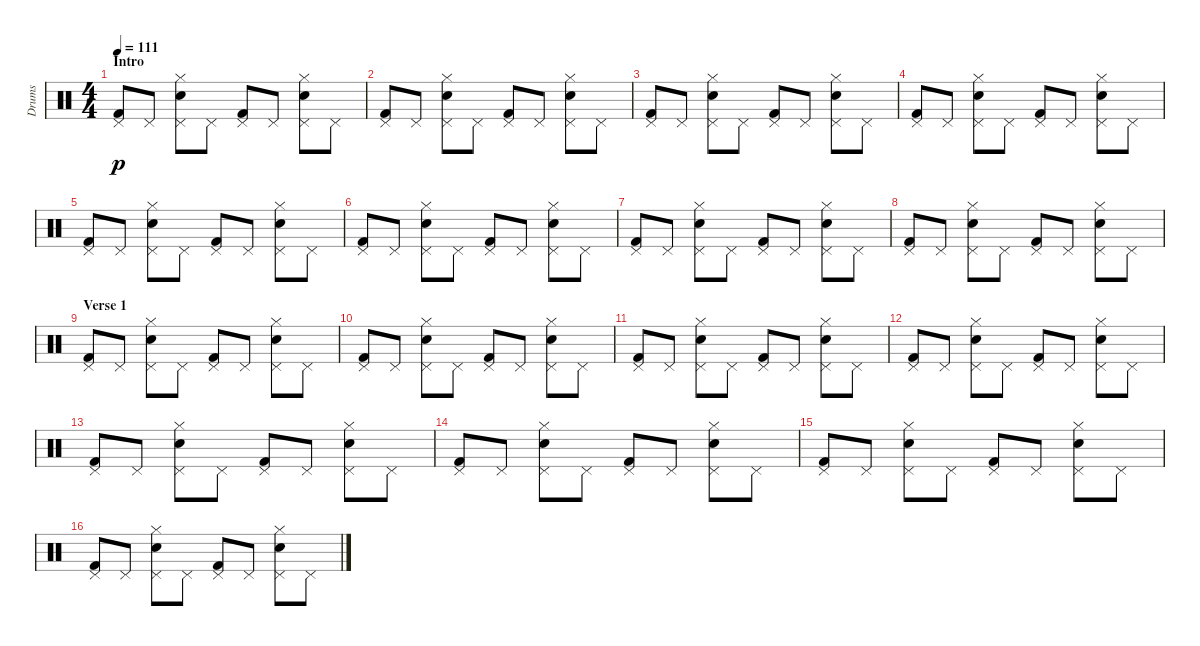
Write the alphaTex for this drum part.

\track ("Drums" "Drums") {instrument percussion}
\staff {score}
\articulation defaults
\ts (4 4)
\section ("" "Intro")
\tempo 111
\clef neutral
\ks c
("Pedal Hi-Hat (hit)" "Kick (hit) 2").8{dy p} "Pedal Hi-Hat (hit)".8 ("Pedal Hi-Hat (hit)" "Hand Clap (hit)" "Hi-Hat (closed)").8 "Pedal Hi-Hat (hit)".8 ("Pedal Hi-Hat (hit)" "Kick (hit) 2").8 "Pedal Hi-Hat (hit)".8 ("Pedal Hi-Hat (hit)" "Hand Clap (hit)" "Hi-Hat (closed)").8 "Pedal Hi-Hat (hit)".8 |
("Pedal Hi-Hat (hit)" "Kick (hit) 2").8 "Pedal Hi-Hat (hit)".8 ("Pedal Hi-Hat (hit)" "Hand Clap (hit)" "Hi-Hat (closed)").8 "Pedal Hi-Hat (hit)".8 ("Pedal Hi-Hat (hit)" "Kick (hit) 2").8 "Pedal Hi-Hat (hit)".8 ("Pedal Hi-Hat (hit)" "Hand Clap (hit)" "Hi-Hat (closed)").8 "Pedal Hi-Hat (hit)".8 |
("Pedal Hi-Hat (hit)" "Kick (hit) 2").8 "Pedal Hi-Hat (hit)".8 ("Pedal Hi-Hat (hit)" "Hand Clap (hit)" "Hi-Hat (closed)").8 "Pedal Hi-Hat (hit)".8 ("Pedal Hi-Hat (hit)" "Kick (hit) 2").8 "Pedal Hi-Hat (hit)".8 ("Pedal Hi-Hat (hit)" "Hand Clap (hit)" "Hi-Hat (closed)").8 "Pedal Hi-Hat (hit)".8 |
("Pedal Hi-Hat (hit)" "Kick (hit) 2").8 "Pedal Hi-Hat (hit)".8 ("Pedal Hi-Hat (hit)" "Hand Clap (hit)" "Hi-Hat (closed)").8 "Pedal Hi-Hat (hit)".8 ("Pedal Hi-Hat (hit)" "Kick (hit) 2").8 "Pedal Hi-Hat (hit)".8 ("Pedal Hi-Hat (hit)" "Hand Clap (hit)" "Hi-Hat (closed)").8 "Pedal Hi-Hat (hit)".8 |
("Pedal Hi-Hat (hit)" "Kick (hit) 2").8 "Pedal Hi-Hat (hit)".8 ("Pedal Hi-Hat (hit)" "Hand Clap (hit)" "Hi-Hat (closed)").8 "Pedal Hi-Hat (hit)".8 ("Pedal Hi-Hat (hit)" "Kick (hit) 2").8 "Pedal Hi-Hat (hit)".8 ("Pedal Hi-Hat (hit)" "Hand Clap (hit)" "Hi-Hat (closed)").8 "Pedal Hi-Hat (hit)".8 |
("Pedal Hi-Hat (hit)" "Kick (hit) 2").8 "Pedal Hi-Hat (hit)".8 ("Pedal Hi-Hat (hit)" "Hand Clap (hit)" "Hi-Hat (closed)").8 "Pedal Hi-Hat (hit)".8 ("Pedal Hi-Hat (hit)" "Kick (hit) 2").8 "Pedal Hi-Hat (hit)".8 ("Pedal Hi-Hat (hit)" "Hand Clap (hit)" "Hi-Hat (closed)").8 "Pedal Hi-Hat (hit)".8 |
("Pedal Hi-Hat (hit)" "Kick (hit) 2").8 "Pedal Hi-Hat (hit)".8 ("Pedal Hi-Hat (hit)" "Hand Clap (hit)" "Hi-Hat (closed)").8 "Pedal Hi-Hat (hit)".8 ("Pedal Hi-Hat (hit)" "Kick (hit) 2").8 "Pedal Hi-Hat (hit)".8 ("Pedal Hi-Hat (hit)" "Hand Clap (hit)" "Hi-Hat (closed)").8 "Pedal Hi-Hat (hit)".8 |
("Pedal Hi-Hat (hit)" "Kick (hit) 2").8 "Pedal Hi-Hat (hit)".8 ("Pedal Hi-Hat (hit)" "Hand Clap (hit)" "Hi-Hat (closed)").8 "Pedal Hi-Hat (hit)".8 ("Pedal Hi-Hat (hit)" "Kick (hit) 2").8 "Pedal Hi-Hat (hit)".8 ("Pedal Hi-Hat (hit)" "Hand Clap (hit)" "Hi-Hat (closed)").8 "Pedal Hi-Hat (hit)".8 |
\section ("" "Verse 1")
("Pedal Hi-Hat (hit)" "Kick (hit) 2").8 "Pedal Hi-Hat (hit)".8 ("Pedal Hi-Hat (hit)" "Hand Clap (hit)" "Hi-Hat (closed)").8 "Pedal Hi-Hat (hit)".8 ("Pedal Hi-Hat (hit)" "Kick (hit) 2").8 "Pedal Hi-Hat (hit)".8 ("Pedal Hi-Hat (hit)" "Hand Clap (hit)" "Hi-Hat (closed)").8 "Pedal Hi-Hat (hit)".8 |
("Pedal Hi-Hat (hit)" "Kick (hit) 2").8 "Pedal Hi-Hat (hit)".8 ("Pedal Hi-Hat (hit)" "Hand Clap (hit)" "Hi-Hat (closed)").8 "Pedal Hi-Hat (hit)".8 ("Pedal Hi-Hat (hit)" "Kick (hit) 2").8 "Pedal Hi-Hat (hit)".8 ("Pedal Hi-Hat (hit)" "Hand Clap (hit)" "Hi-Hat (closed)").8 "Pedal Hi-Hat (hit)".8 |
("Pedal Hi-Hat (hit)" "Kick (hit) 2").8 "Pedal Hi-Hat (hit)".8 ("Pedal Hi-Hat (hit)" "Hand Clap (hit)" "Hi-Hat (closed)").8 "Pedal Hi-Hat (hit)".8 ("Pedal Hi-Hat (hit)" "Kick (hit) 2").8 "Pedal Hi-Hat (hit)".8 ("Pedal Hi-Hat (hit)" "Hand Clap (hit)" "Hi-Hat (closed)").8 "Pedal Hi-Hat (hit)".8 |
("Pedal Hi-Hat (hit)" "Kick (hit) 2").8 "Pedal Hi-Hat (hit)".8 ("Pedal Hi-Hat (hit)" "Hand Clap (hit)" "Hi-Hat (closed)").8 "Pedal Hi-Hat (hit)".8 ("Pedal Hi-Hat (hit)" "Kick (hit) 2").8 "Pedal Hi-Hat (hit)".8 ("Pedal Hi-Hat (hit)" "Hand Clap (hit)" "Hi-Hat (closed)").8 "Pedal Hi-Hat (hit)".8 |
("Pedal Hi-Hat (hit)" "Kick (hit) 2").8 "Pedal Hi-Hat (hit)".8 ("Pedal Hi-Hat (hit)" "Hand Clap (hit)" "Hi-Hat (closed)").8 "Pedal Hi-Hat (hit)".8 ("Pedal Hi-Hat (hit)" "Kick (hit) 2").8 "Pedal Hi-Hat (hit)".8 ("Pedal Hi-Hat (hit)" "Hand Clap (hit)" "Hi-Hat (closed)").8 "Pedal Hi-Hat (hit)".8 |
("Pedal Hi-Hat (hit)" "Kick (hit) 2").8 "Pedal Hi-Hat (hit)".8 ("Pedal Hi-Hat (hit)" "Hand Clap (hit)" "Hi-Hat (closed)").8 "Pedal Hi-Hat (hit)".8 ("Pedal Hi-Hat (hit)" "Kick (hit) 2").8 "Pedal Hi-Hat (hit)".8 ("Pedal Hi-Hat (hit)" "Hand Clap (hit)" "Hi-Hat (closed)").8 "Pedal Hi-Hat (hit)".8 |
("Pedal Hi-Hat (hit)" "Kick (hit) 2").8 "Pedal Hi-Hat (hit)".8 ("Pedal Hi-Hat (hit)" "Hand Clap (hit)" "Hi-Hat (closed)").8 "Pedal Hi-Hat (hit)".8 ("Pedal Hi-Hat (hit)" "Kick (hit) 2").8 "Pedal Hi-Hat (hit)".8 ("Pedal Hi-Hat (hit)" "Hand Clap (hit)" "Hi-Hat (closed)").8 "Pedal Hi-Hat (hit)".8 |
("Pedal Hi-Hat (hit)" "Kick (hit) 2").8 "Pedal Hi-Hat (hit)".8 ("Pedal Hi-Hat (hit)" "Hand Clap (hit)" "Hi-Hat (closed)").8 "Pedal Hi-Hat (hit)".8 ("Pedal Hi-Hat (hit)" "Kick (hit) 2").8 "Pedal Hi-Hat (hit)".8 ("Pedal Hi-Hat (hit)" "Hand Clap (hit)" "Hi-Hat (closed)").8 "Pedal Hi-Hat (hit)".8
